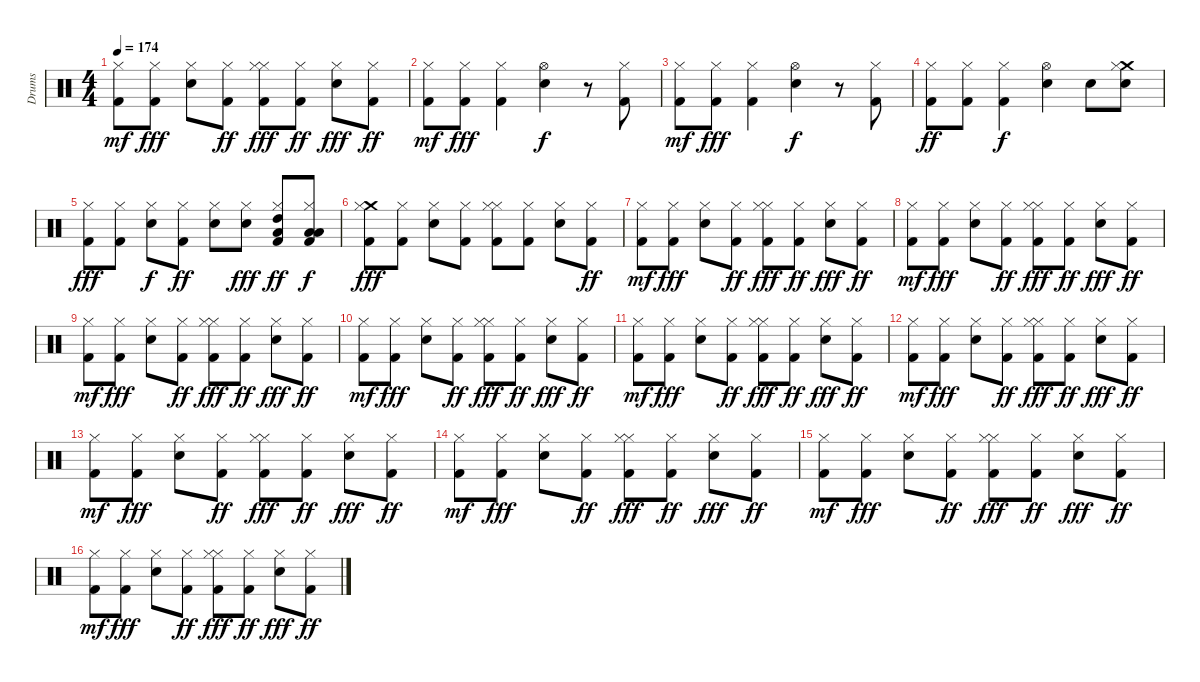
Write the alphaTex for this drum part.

\track ("Drums" "Drums") {instrument percussion}
\staff {score}
\articulation defaults
\ts (4 4)
\tempo 174
\clef neutral
\ks c
("Kick (hit) 2" "Hi-Hat (closed)").8{dy mf} ("Hi-Hat (closed)" "Kick (hit) 2").8{dy fff} ("Hi-Hat (closed)" "Snare (hit) 2").8 ("Hi-Hat (closed)" "Kick (hit) 2").8{dy ff} ("Hi-Hat (closed)" "Hi-Hat (closed)" "Kick (hit) 2").8{dy fff} ("Hi-Hat (closed)" "Kick (hit) 2").8{dy ff} ("Hi-Hat (closed)" "Snare (hit) 2").8{dy fff} ("Hi-Hat (closed)" "Kick (hit) 2").8{dy ff} |
("Hi-Hat (closed)" "Kick (hit) 2").8{dy mf} ("Hi-Hat (closed)" "Kick (hit) 2").8{dy fff} ("Hi-Hat (closed)" "Kick (hit) 2").4 ("Hi-Hat (open)" "Snare (hit) 2").4{dy f} r.8 ("Hi-Hat (closed)" "Kick (hit) 2").8 |
("Hi-Hat (closed)" "Kick (hit) 2").8{dy mf} ("Hi-Hat (closed)" "Kick (hit) 2").8{dy fff} ("Hi-Hat (closed)" "Kick (hit) 2").4 ("Hi-Hat (open)" "Snare (hit) 2").4{dy f} r.8 ("Hi-Hat (closed)" "Kick (hit) 2").8 |
("Hi-Hat (closed)" "Kick (hit) 2").8{dy ff} ("Hi-Hat (closed)" "Kick (hit) 2").8 ("Hi-Hat (closed)" "Kick (hit) 2").4{dy f} ("Hi-Hat (open)" "Snare (hit) 2").4 "Electric Snare (hit)".8 ("Crash medium (hit)" "Hi-Hat (closed)" "Snare (hit) 2").8 |
("Hi-Hat (closed)" "Kick (hit) 2").8{dy fff} ("Hi-Hat (closed)" "Kick (hit) 2").8 ("Hi-Hat (closed)" "Snare (hit) 2").8{dy f} ("Hi-Hat (closed)" "Kick (hit) 2").8{dy ff} ("Hi-Hat (closed)" "Snare (hit) 2").8 ("Hi-Hat (closed)" "Snare (hit) 2").8{dy fff} ("Hi-Hat (closed)" "Low Tom (hit)" "High Tom (hit)" "Kick (hit) 2").8{dy ff} ("Hi-Hat (closed)" "Low Floor Tom (hit)" "Low Tom (hit)" "Kick (hit) 2").8{dy f} |
("Crash medium (hit)" "Hi-Hat (closed)" "Kick (hit) 2").8{dy fff} ("Hi-Hat (closed)" "Kick (hit) 2").8 ("Hi-Hat (closed)" "Snare (hit) 2").8 ("Hi-Hat (closed)" "Kick (hit) 2").8 ("Hi-Hat (closed)" "Hi-Hat (closed)" "Kick (hit) 2").8 ("Hi-Hat (closed)" "Kick (hit) 2").8 ("Hi-Hat (closed)" "Snare (hit) 2").8 ("Hi-Hat (closed)" "Kick (hit) 2").8{dy ff} |
("Kick (hit) 2" "Hi-Hat (closed)").8{dy mf} ("Hi-Hat (closed)" "Kick (hit) 2").8{dy fff} ("Hi-Hat (closed)" "Snare (hit) 2").8 ("Hi-Hat (closed)" "Kick (hit) 2").8{dy ff} ("Hi-Hat (closed)" "Hi-Hat (closed)" "Kick (hit) 2").8{dy fff} ("Hi-Hat (closed)" "Kick (hit) 2").8{dy ff} ("Hi-Hat (closed)" "Snare (hit) 2").8{dy fff} ("Hi-Hat (closed)" "Kick (hit) 2").8{dy ff} |
("Kick (hit) 2" "Hi-Hat (closed)").8{dy mf} ("Hi-Hat (closed)" "Kick (hit) 2").8{dy fff} ("Hi-Hat (closed)" "Snare (hit) 2").8 ("Hi-Hat (closed)" "Kick (hit) 2").8{dy ff} ("Hi-Hat (closed)" "Hi-Hat (closed)" "Kick (hit) 2").8{dy fff} ("Hi-Hat (closed)" "Kick (hit) 2").8{dy ff} ("Hi-Hat (closed)" "Snare (hit) 2").8{dy fff} ("Hi-Hat (closed)" "Kick (hit) 2").8{dy ff} |
("Kick (hit) 2" "Hi-Hat (closed)").8{dy mf} ("Hi-Hat (closed)" "Kick (hit) 2").8{dy fff} ("Hi-Hat (closed)" "Snare (hit) 2").8 ("Hi-Hat (closed)" "Kick (hit) 2").8{dy ff} ("Hi-Hat (closed)" "Hi-Hat (closed)" "Kick (hit) 2").8{dy fff} ("Hi-Hat (closed)" "Kick (hit) 2").8{dy ff} ("Hi-Hat (closed)" "Snare (hit) 2").8{dy fff} ("Hi-Hat (closed)" "Kick (hit) 2").8{dy ff} |
("Kick (hit) 2" "Hi-Hat (closed)").8{dy mf} ("Hi-Hat (closed)" "Kick (hit) 2").8{dy fff} ("Hi-Hat (closed)" "Snare (hit) 2").8 ("Hi-Hat (closed)" "Kick (hit) 2").8{dy ff} ("Hi-Hat (closed)" "Hi-Hat (closed)" "Kick (hit) 2").8{dy fff} ("Hi-Hat (closed)" "Kick (hit) 2").8{dy ff} ("Hi-Hat (closed)" "Snare (hit) 2").8{dy fff} ("Hi-Hat (closed)" "Kick (hit) 2").8{dy ff} |
("Kick (hit) 2" "Hi-Hat (closed)").8{dy mf} ("Hi-Hat (closed)" "Kick (hit) 2").8{dy fff} ("Hi-Hat (closed)" "Snare (hit) 2").8 ("Hi-Hat (closed)" "Kick (hit) 2").8{dy ff} ("Hi-Hat (closed)" "Hi-Hat (closed)" "Kick (hit) 2").8{dy fff} ("Hi-Hat (closed)" "Kick (hit) 2").8{dy ff} ("Hi-Hat (closed)" "Snare (hit) 2").8{dy fff} ("Hi-Hat (closed)" "Kick (hit) 2").8{dy ff} |
("Kick (hit) 2" "Hi-Hat (closed)").8{dy mf} ("Hi-Hat (closed)" "Kick (hit) 2").8{dy fff} ("Hi-Hat (closed)" "Snare (hit) 2").8 ("Hi-Hat (closed)" "Kick (hit) 2").8{dy ff} ("Hi-Hat (closed)" "Hi-Hat (closed)" "Kick (hit) 2").8{dy fff} ("Hi-Hat (closed)" "Kick (hit) 2").8{dy ff} ("Hi-Hat (closed)" "Snare (hit) 2").8{dy fff} ("Hi-Hat (closed)" "Kick (hit) 2").8{dy ff} |
("Kick (hit) 2" "Hi-Hat (closed)").8{dy mf} ("Hi-Hat (closed)" "Kick (hit) 2").8{dy fff} ("Hi-Hat (closed)" "Snare (hit) 2").8 ("Hi-Hat (closed)" "Kick (hit) 2").8{dy ff} ("Hi-Hat (closed)" "Hi-Hat (closed)" "Kick (hit) 2").8{dy fff} ("Hi-Hat (closed)" "Kick (hit) 2").8{dy ff} ("Hi-Hat (closed)" "Snare (hit) 2").8{dy fff} ("Hi-Hat (closed)" "Kick (hit) 2").8{dy ff} |
("Kick (hit) 2" "Hi-Hat (closed)").8{dy mf} ("Hi-Hat (closed)" "Kick (hit) 2").8{dy fff} ("Hi-Hat (closed)" "Snare (hit) 2").8 ("Hi-Hat (closed)" "Kick (hit) 2").8{dy ff} ("Hi-Hat (closed)" "Hi-Hat (closed)" "Kick (hit) 2").8{dy fff} ("Hi-Hat (closed)" "Kick (hit) 2").8{dy ff} ("Hi-Hat (closed)" "Snare (hit) 2").8{dy fff} ("Hi-Hat (closed)" "Kick (hit) 2").8{dy ff} |
("Kick (hit) 2" "Hi-Hat (closed)").8{dy mf} ("Hi-Hat (closed)" "Kick (hit) 2").8{dy fff} ("Hi-Hat (closed)" "Snare (hit) 2").8 ("Hi-Hat (closed)" "Kick (hit) 2").8{dy ff} ("Hi-Hat (closed)" "Hi-Hat (closed)" "Kick (hit) 2").8{dy fff} ("Hi-Hat (closed)" "Kick (hit) 2").8{dy ff} ("Hi-Hat (closed)" "Snare (hit) 2").8{dy fff} ("Hi-Hat (closed)" "Kick (hit) 2").8{dy ff} |
("Kick (hit) 2" "Hi-Hat (closed)").8{dy mf} ("Hi-Hat (closed)" "Kick (hit) 2").8{dy fff} ("Hi-Hat (closed)" "Snare (hit) 2").8 ("Hi-Hat (closed)" "Kick (hit) 2").8{dy ff} ("Hi-Hat (closed)" "Hi-Hat (closed)" "Kick (hit) 2").8{dy fff} ("Hi-Hat (closed)" "Kick (hit) 2").8{dy ff} ("Hi-Hat (closed)" "Snare (hit) 2").8{dy fff} ("Hi-Hat (closed)" "Kick (hit) 2").8{dy ff}
